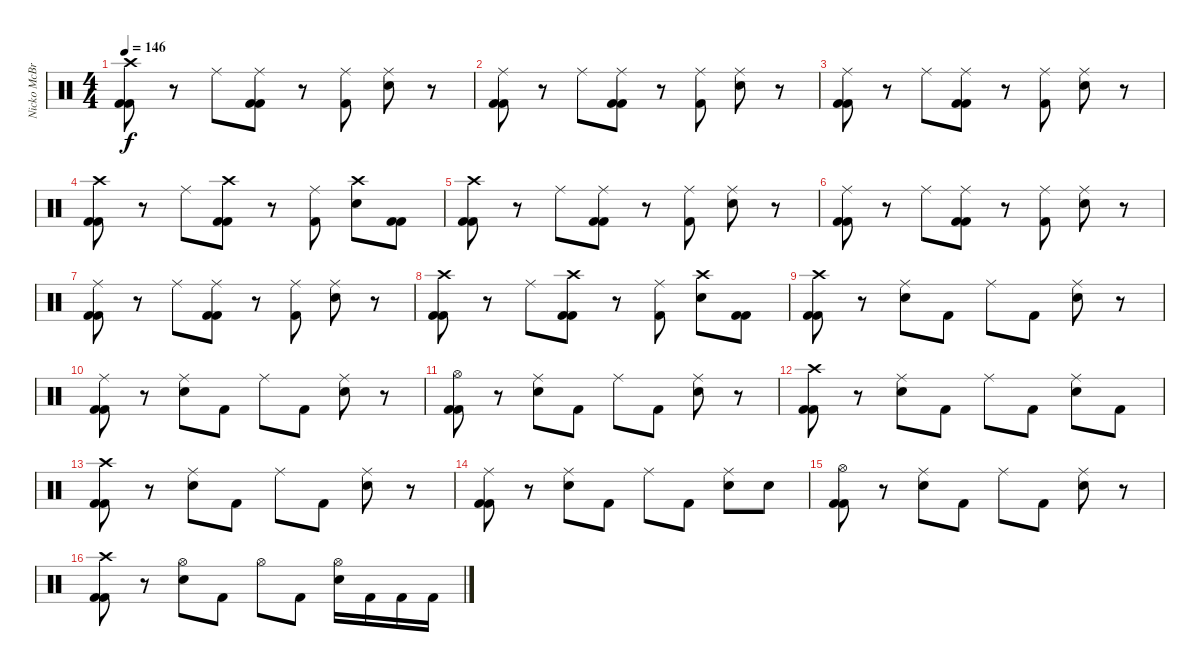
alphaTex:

\track ("Nicko McBrain" "Nicko McBr") {instrument percussion}
\staff {score}
\articulation defaults
\ts (4 4)
\tempo 146
\clef neutral
\ks c
("Crash high (hit)" "Kick (hit) 2" "Kick (hit) 2").8{dy f} r.8 "Ride (middle)".8 ("Ride (middle)" "Kick (hit) 2" "Kick (hit) 2").8 r.8 ("Ride (middle)" "Kick (hit) 2").8 ("Ride (middle)" "Snare (hit) 2").8 r.8 |
("Ride (middle)" "Kick (hit) 2" "Kick (hit) 2").8 r.8 "Ride (middle)".8 ("Ride (middle)" "Kick (hit) 2" "Kick (hit) 2").8 r.8 ("Ride (middle)" "Kick (hit) 2").8 ("Ride (middle)" "Snare (hit) 2").8 r.8 |
("Ride (middle)" "Kick (hit) 2" "Kick (hit) 2").8 r.8 "Ride (middle)".8 ("Ride (middle)" "Kick (hit) 2" "Kick (hit) 2").8 r.8 ("Ride (middle)" "Kick (hit) 2").8 ("Ride (middle)" "Snare (hit) 2").8 r.8 |
("Crash high (hit)" "Kick (hit) 2" "Kick (hit) 2").8 r.8 "Ride (middle)".8 ("Crash high (hit)" "Kick (hit) 2" "Kick (hit) 2").8 r.8 ("Ride (middle)" "Kick (hit) 2").8 ("Crash high (hit)" "Snare (hit) 2").8 ("Kick (hit) 2" "Kick (hit) 2").8 |
("Crash high (hit)" "Kick (hit) 2" "Kick (hit) 2").8 r.8 "Ride (middle)".8 ("Ride (middle)" "Kick (hit) 2" "Kick (hit) 2").8 r.8 ("Ride (middle)" "Kick (hit) 2").8 ("Ride (middle)" "Snare (hit) 2").8 r.8 |
("Ride (middle)" "Kick (hit) 2" "Kick (hit) 2").8 r.8 "Ride (middle)".8 ("Ride (middle)" "Kick (hit) 2" "Kick (hit) 2").8 r.8 ("Ride (middle)" "Kick (hit) 2").8 ("Ride (middle)" "Snare (hit) 2").8 r.8 |
("Ride (middle)" "Kick (hit) 2" "Kick (hit) 2").8 r.8 "Ride (middle)".8 ("Ride (middle)" "Kick (hit) 2" "Kick (hit) 2").8 r.8 ("Ride (middle)" "Kick (hit) 2").8 ("Ride (middle)" "Snare (hit) 2").8 r.8 |
("Crash high (hit)" "Kick (hit) 2" "Kick (hit) 2").8 r.8 "Ride (middle)".8 ("Crash high (hit)" "Kick (hit) 2" "Kick (hit) 2").8 r.8 ("Ride (middle)" "Kick (hit) 2").8 ("Crash high (hit)" "Snare (hit) 2").8 ("Kick (hit) 2" "Kick (hit) 2").8 |
("Crash high (hit)" "Kick (hit) 2" "Kick (hit) 2").8 r.8 ("Ride (middle)" "Snare (hit) 2").8 "Kick (hit) 2".8 "Ride (middle)".8 "Kick (hit) 2".8 ("Ride (middle)" "Snare (hit) 2").8 r.8 |
("Ride (middle)" "Kick (hit) 2" "Kick (hit) 2").8 r.8 ("Ride (middle)" "Snare (hit) 2").8 "Kick (hit) 2".8 "Ride (middle)".8 "Kick (hit) 2".8 ("Ride (middle)" "Snare (hit) 2").8 r.8 |
("Hi-Hat (open)" "Kick (hit) 2" "Kick (hit) 2").8 r.8 ("Ride (middle)" "Snare (hit) 2").8 "Kick (hit) 2".8 "Ride (middle)".8 "Kick (hit) 2".8 ("Ride (middle)" "Snare (hit) 2").8 r.8 |
("Crash high (hit)" "Kick (hit) 2" "Kick (hit) 2").8 r.8 ("Ride (middle)" "Snare (hit) 2").8 "Kick (hit) 2".8 "Ride (middle)".8 "Kick (hit) 2".8 ("Ride (middle)" "Snare (hit) 2").8 "Kick (hit) 2".8 |
("Crash high (hit)" "Kick (hit) 2" "Kick (hit) 2").8 r.8 ("Ride (middle)" "Snare (hit) 2").8 "Kick (hit) 2".8 "Ride (middle)".8 "Kick (hit) 2".8 ("Ride (middle)" "Snare (hit) 2").8 r.8 |
("Ride (middle)" "Kick (hit) 2" "Kick (hit) 2").8 r.8 ("Ride (middle)" "Snare (hit) 2").8 "Kick (hit) 2".8 "Ride (middle)".8 "Kick (hit) 2".8 ("Ride (middle)" "Snare (hit) 2").8 "Snare (hit) 2".8 |
("Hi-Hat (open)" "Kick (hit) 2" "Kick (hit) 2").8 r.8 ("Ride (middle)" "Snare (hit) 2").8 "Kick (hit) 2".8 "Ride (middle)".8 "Kick (hit) 2".8 ("Ride (middle)" "Snare (hit) 2").8 r.8 |
("Crash high (hit)" "Kick (hit) 2" "Kick (hit) 2").8 r.8 ("Hi-Hat (open)" "Snare (hit) 2").8 "Kick (hit) 2".8 "Hi-Hat (open)".8 "Kick (hit) 2".8 ("Hi-Hat (open)" "Snare (hit) 2").16 "Kick (hit) 2".16 "Kick (hit) 2".16 "Kick (hit) 2".16
